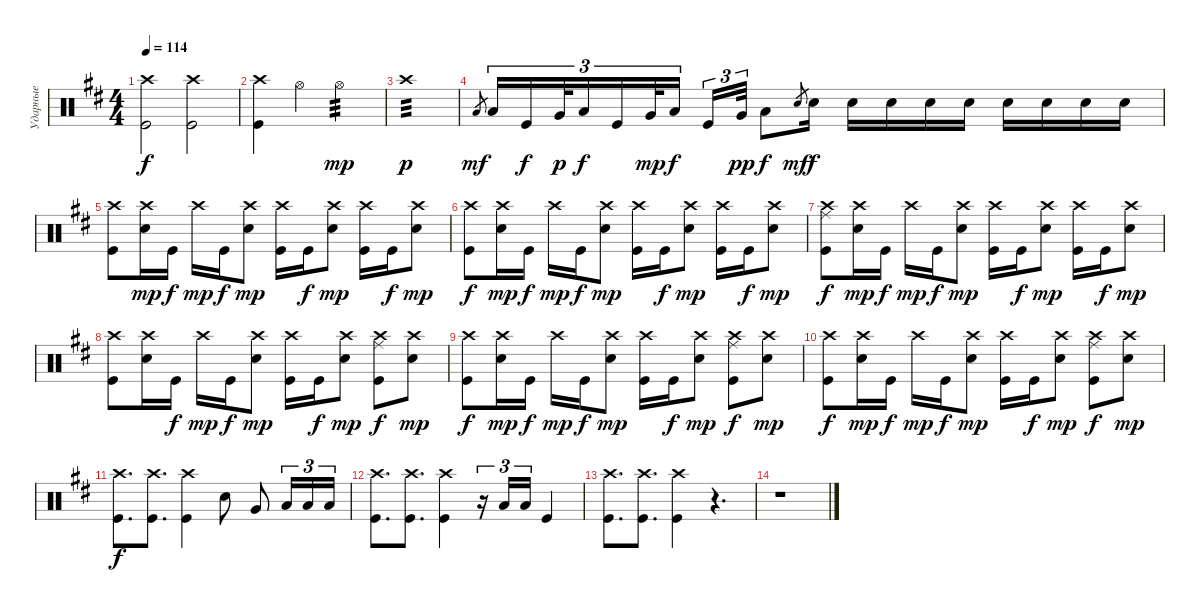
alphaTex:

\track ("Ударные" "Ударные") {instrument percussion}
\staff {score}
\articulation defaults
\ts (4 4)
\tempo 114
\clef neutral
\ks bminor
("Crash high (hit)" "Kick (hit)").2{dy f} ("Crash high (hit)" "Kick (hit)").2 |
("Crash high (hit)" "Kick (hit)").4 "Hi-Hat (open)".4 "Hi-Hat (open)".2{tp 3 dy mp} |
"Crash high (hit)".1{tp 3 dy p} |
"Low Tom (hit)".8{gr dy mf} "Low Tom (hit)".16{tu (3 2)} "Kick (hit)".16{tu (3 2) dy f} "Very Low Tom (hit)".32{tu (3 2) dy p} "Low Tom (hit)".16{tu (3 2) dy f} "Kick (hit)".16{tu (3 2)} "Very Low Tom (hit)".32{tu (3 2) dy mp} "Low Tom (hit)".16{tu (3 2) dy f} "Kick (hit)".16{tu (3 2)} "Very Low Tom (hit)".32{tu (3 2) dy pp} "Low Tom (hit)".8{dy f} "Snare (hit) 2".8{gr dy mf} "Snare (hit) 2".16{dy f} "Snare (hit) 2".16 "Snare (hit) 2".16 "Snare (hit) 2".16 "Snare (hit) 2".16 "Snare (hit) 2".16 "Snare (hit) 2".16 "Snare (hit) 2".16 "Snare (hit) 2".16 |
("Crash high (hit)" "Kick (hit)").8 ("Crash high (hit)" "Snare (hit) 2").16{dy mp} "Kick (hit)".16{dy f} "Crash high (hit)".16{dy mp} "Kick (hit)".16{dy f} ("Crash high (hit)" "Snare (hit) 2").8{dy mp} ("Kick (hit)" "Crash high (hit)").16 "Kick (hit)".16{dy f} ("Crash high (hit)" "Snare (hit) 2").8{dy mp} ("Kick (hit)" "Crash high (hit)").16 "Kick (hit)".16{dy f} ("Crash high (hit)" "Snare (hit) 2").8{dy mp} |
("Crash high (hit)" "Kick (hit)").8{dy f} ("Crash high (hit)" "Snare (hit) 2").16{dy mp} "Kick (hit)".16{dy f} "Crash high (hit)".16{dy mp} "Kick (hit)".16{dy f} ("Crash high (hit)" "Snare (hit) 2").8{dy mp} ("Kick (hit)" "Crash high (hit)").16 "Kick (hit)".16{dy f} ("Crash high (hit)" "Snare (hit) 2").8{dy mp} ("Crash high (hit)" "Kick (hit)").16 "Kick (hit)".16{dy f} ("Crash high (hit)" "Snare (hit) 2").8{dy mp} |
("Crash high (hit)" "Ride (middle)" "Kick (hit)").8{dy f} ("Crash high (hit)" "Snare (hit) 2").16{dy mp} "Kick (hit)".16{dy f} "Crash high (hit)".16{dy mp} "Kick (hit)".16{dy f} ("Crash high (hit)" "Snare (hit) 2").8{dy mp} ("Kick (hit)" "Crash high (hit)").16 "Kick (hit)".16{dy f} ("Crash high (hit)" "Snare (hit) 2").8{dy mp} ("Kick (hit)" "Crash high (hit)").16 "Kick (hit)".16{dy f} ("Crash high (hit)" "Snare (hit) 2").8{dy mp} |
("Crash high (hit)" "Kick (hit)").8 ("Crash high (hit)" "Snare (hit) 2").16 "Kick (hit)".16{dy f} "Crash high (hit)".16{dy mp} "Kick (hit)".16{dy f} ("Crash high (hit)" "Snare (hit) 2").8{dy mp} ("Kick (hit)" "Crash high (hit)").16 "Kick (hit)".16{dy f} ("Crash high (hit)" "Snare (hit) 2").8{dy mp} ("Ride (middle)" "Crash high (hit)" "Kick (hit)").8{dy f} ("Crash high (hit)" "Snare (hit) 2").8{dy mp} |
("Crash high (hit)" "Kick (hit)").8{dy f} ("Crash high (hit)" "Snare (hit) 2").16{dy mp} "Kick (hit)".16{dy f} "Crash high (hit)".16{dy mp} "Kick (hit)".16{dy f} ("Crash high (hit)" "Snare (hit) 2").8{dy mp} ("Kick (hit)" "Crash high (hit)").16 "Kick (hit)".16{dy f} ("Crash high (hit)" "Snare (hit) 2").8{dy mp} ("Ride (middle)" "Crash high (hit)" "Kick (hit)").8{dy f} ("Crash high (hit)" "Snare (hit) 2").8{dy mp} |
("Crash high (hit)" "Kick (hit)").8{dy f} ("Crash high (hit)" "Snare (hit) 2").16{dy mp} "Kick (hit)".16{dy f} "Crash high (hit)".16{dy mp} "Kick (hit)".16{dy f} ("Crash high (hit)" "Snare (hit) 2").8{dy mp} ("Kick (hit)" "Crash high (hit)").16 "Kick (hit)".16{dy f} ("Crash high (hit)" "Snare (hit) 2").8{dy mp} ("Ride (middle)" "Crash high (hit)" "Kick (hit)").8{dy f} ("Crash high (hit)" "Snare (hit) 2").8{dy mp} |
("Crash high (hit)" "Kick (hit)").8{d dy f} ("Crash high (hit)" "Kick (hit)").8{d} ("Crash high (hit)" "Kick (hit)").4 "Snare (hit) 2".8 "Very Low Tom (hit)".8 "Low Floor Tom (hit)".16{tu (3 2)} "Low Floor Tom (hit)".16{tu (3 2)} "Low Floor Tom (hit)".16{tu (3 2)} |
("Crash high (hit)" "Kick (hit)").8{d} ("Crash high (hit)" "Kick (hit)").8{d} ("Crash high (hit)" "Kick (hit)").4 r.16{tu (3 2)} "Low Floor Tom (hit)".16{tu (3 2)} "Low Floor Tom (hit)".16{tu (3 2)} "Kick (hit)".4 |
("Crash high (hit)" "Kick (hit)").8{d} ("Crash high (hit)" "Kick (hit)").8{d} ("Crash high (hit)" "Kick (hit)").4 r.4{d} |
r.1
